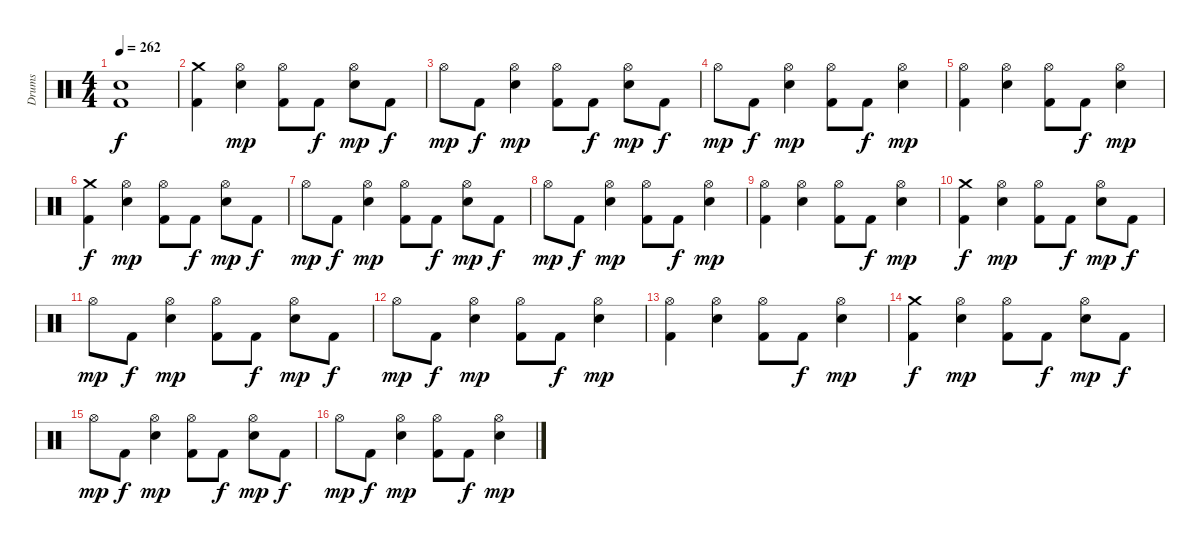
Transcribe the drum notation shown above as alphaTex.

\track ("Drums" "Drums") {instrument percussion}
\staff {score}
\articulation defaults
\ts (4 4)
\tempo 262
\clef neutral
\ks c
("Snare (hit) 2" "Kick (hit) 2").1{dy f} |
("Crash medium (hit)" "Kick (hit) 2").4 ("Hi-Hat (open)" "Snare (hit) 2").4{dy mp} ("Hi-Hat (open)" "Kick (hit) 2").8 "Kick (hit) 2".8{dy f} ("Hi-Hat (open)" "Snare (hit) 2").8{dy mp} "Kick (hit) 2".8{dy f} |
"Hi-Hat (open)".8{dy mp} "Kick (hit) 2".8{dy f} ("Hi-Hat (open)" "Snare (hit) 2").4{dy mp} ("Hi-Hat (open)" "Kick (hit) 2").8 "Kick (hit) 2".8{dy f} ("Hi-Hat (open)" "Snare (hit) 2").8{dy mp} "Kick (hit) 2".8{dy f} |
"Hi-Hat (open)".8{dy mp} "Kick (hit) 2".8{dy f} ("Hi-Hat (open)" "Snare (hit) 2").4{dy mp} ("Hi-Hat (open)" "Kick (hit) 2").8 "Kick (hit) 2".8{dy f} ("Hi-Hat (open)" "Snare (hit) 2").4{dy mp} |
("Hi-Hat (open)" "Kick (hit) 2").4 ("Hi-Hat (open)" "Snare (hit) 2").4 ("Hi-Hat (open)" "Kick (hit) 2").8 "Kick (hit) 2".8{dy f} ("Hi-Hat (open)" "Snare (hit) 2").4{dy mp} |
("Crash medium (hit)" "Kick (hit) 2").4{dy f} ("Hi-Hat (open)" "Snare (hit) 2").4{dy mp} ("Hi-Hat (open)" "Kick (hit) 2").8 "Kick (hit) 2".8{dy f} ("Hi-Hat (open)" "Snare (hit) 2").8{dy mp} "Kick (hit) 2".8{dy f} |
"Hi-Hat (open)".8{dy mp} "Kick (hit) 2".8{dy f} ("Hi-Hat (open)" "Snare (hit) 2").4{dy mp} ("Hi-Hat (open)" "Kick (hit) 2").8 "Kick (hit) 2".8{dy f} ("Hi-Hat (open)" "Snare (hit) 2").8{dy mp} "Kick (hit) 2".8{dy f} |
"Hi-Hat (open)".8{dy mp} "Kick (hit) 2".8{dy f} ("Hi-Hat (open)" "Snare (hit) 2").4{dy mp} ("Hi-Hat (open)" "Kick (hit) 2").8 "Kick (hit) 2".8{dy f} ("Hi-Hat (open)" "Snare (hit) 2").4{dy mp} |
("Hi-Hat (open)" "Kick (hit) 2").4 ("Hi-Hat (open)" "Snare (hit) 2").4 ("Hi-Hat (open)" "Kick (hit) 2").8 "Kick (hit) 2".8{dy f} ("Hi-Hat (open)" "Snare (hit) 2").4{dy mp} |
("Crash medium (hit)" "Kick (hit) 2").4{dy f} ("Hi-Hat (open)" "Snare (hit) 2").4{dy mp} ("Hi-Hat (open)" "Kick (hit) 2").8 "Kick (hit) 2".8{dy f} ("Hi-Hat (open)" "Snare (hit) 2").8{dy mp} "Kick (hit) 2".8{dy f} |
"Hi-Hat (open)".8{dy mp} "Kick (hit) 2".8{dy f} ("Hi-Hat (open)" "Snare (hit) 2").4{dy mp} ("Hi-Hat (open)" "Kick (hit) 2").8 "Kick (hit) 2".8{dy f} ("Hi-Hat (open)" "Snare (hit) 2").8{dy mp} "Kick (hit) 2".8{dy f} |
"Hi-Hat (open)".8{dy mp} "Kick (hit) 2".8{dy f} ("Hi-Hat (open)" "Snare (hit) 2").4{dy mp} ("Hi-Hat (open)" "Kick (hit) 2").8 "Kick (hit) 2".8{dy f} ("Hi-Hat (open)" "Snare (hit) 2").4{dy mp} |
("Hi-Hat (open)" "Kick (hit) 2").4 ("Hi-Hat (open)" "Snare (hit) 2").4 ("Hi-Hat (open)" "Kick (hit) 2").8 "Kick (hit) 2".8{dy f} ("Hi-Hat (open)" "Snare (hit) 2").4{dy mp} |
("Crash medium (hit)" "Kick (hit) 2").4{dy f} ("Hi-Hat (open)" "Snare (hit) 2").4{dy mp} ("Hi-Hat (open)" "Kick (hit) 2").8 "Kick (hit) 2".8{dy f} ("Hi-Hat (open)" "Snare (hit) 2").8{dy mp} "Kick (hit) 2".8{dy f} |
"Hi-Hat (open)".8{dy mp} "Kick (hit) 2".8{dy f} ("Hi-Hat (open)" "Snare (hit) 2").4{dy mp} ("Hi-Hat (open)" "Kick (hit) 2").8 "Kick (hit) 2".8{dy f} ("Hi-Hat (open)" "Snare (hit) 2").8{dy mp} "Kick (hit) 2".8{dy f} |
"Hi-Hat (open)".8{dy mp} "Kick (hit) 2".8{dy f} ("Hi-Hat (open)" "Snare (hit) 2").4{dy mp} ("Hi-Hat (open)" "Kick (hit) 2").8 "Kick (hit) 2".8{dy f} ("Hi-Hat (open)" "Snare (hit) 2").4{dy mp}
